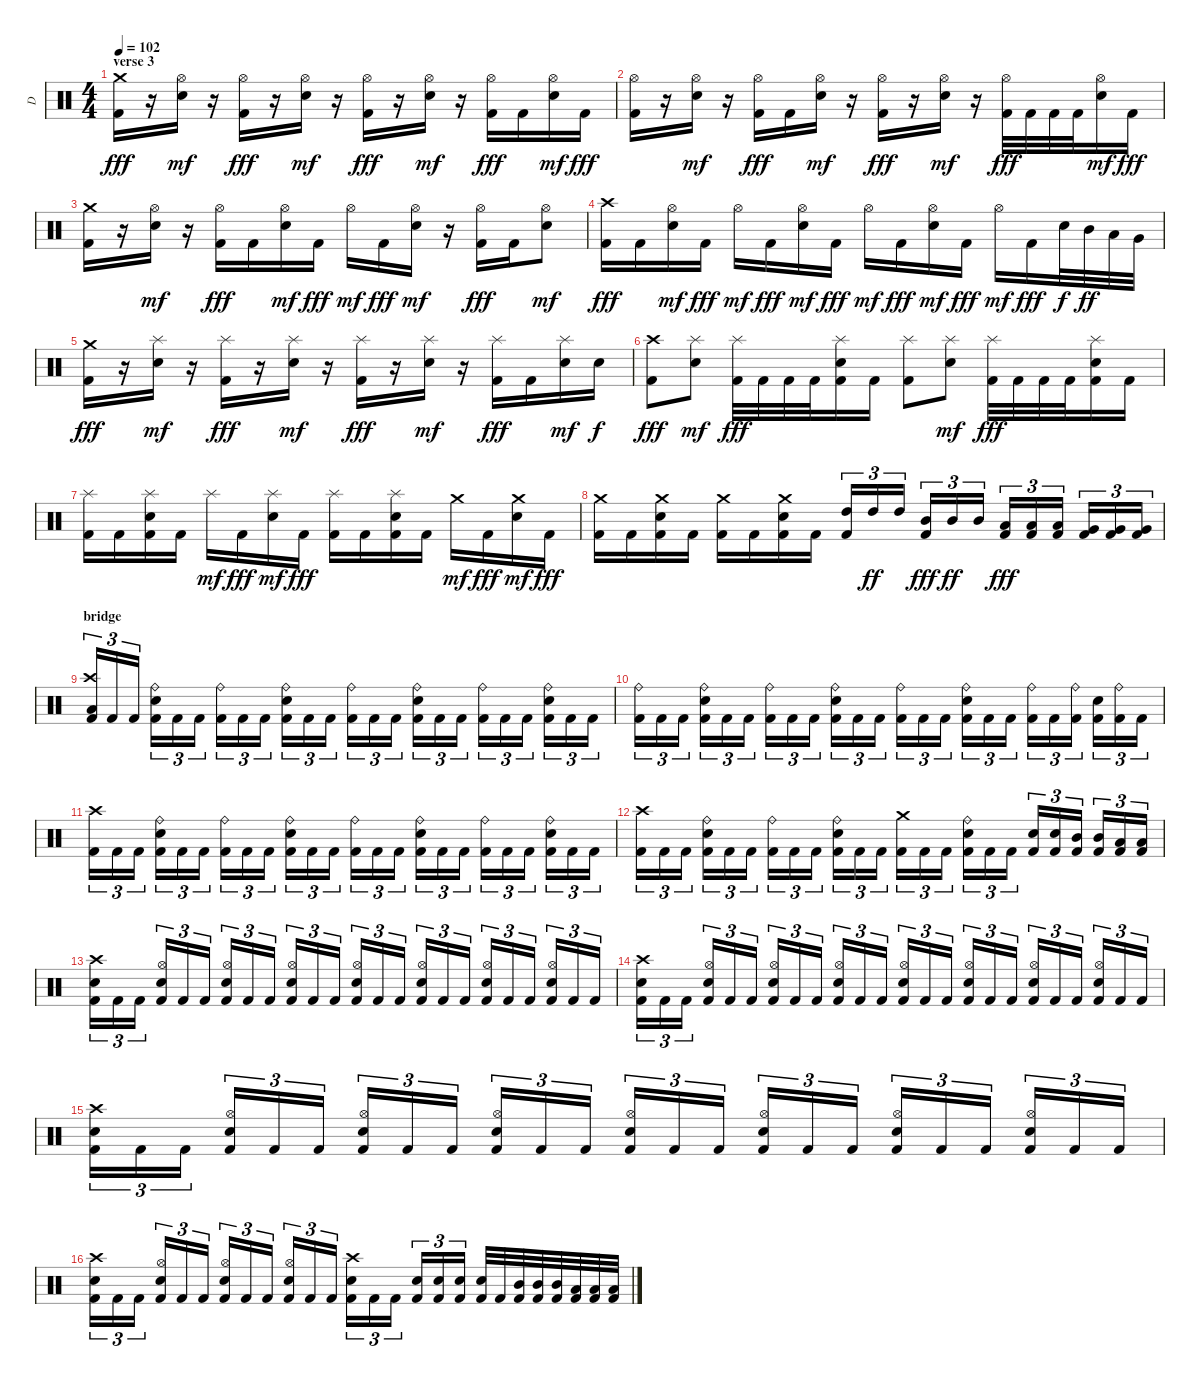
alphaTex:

\track ("D" "D") {instrument percussion}
\staff {score}
\articulation defaults
\ts (4 4)
\section ("" "verse 3")
\tempo 102
\clef neutral
\ks c
("Crash medium (hit)" "Kick (hit) 2").16{dy fff} r.16 ("Hi-Hat (open)" "Snare (hit) 2").16{dy mf} r.16 ("Hi-Hat (open)" "Kick (hit) 2").16{dy fff} r.16 ("Hi-Hat (open)" "Snare (hit) 2").16{dy mf} r.16 ("Hi-Hat (open)" "Kick (hit) 2").16{dy fff} r.16 ("Hi-Hat (open)" "Snare (hit) 2").16{dy mf} r.16 ("Hi-Hat (open)" "Kick (hit) 2").16{dy fff} "Kick (hit) 2".16 ("Hi-Hat (open)" "Snare (hit) 2").16{dy mf} "Kick (hit) 2".16{dy fff} |
("Hi-Hat (open)" "Kick (hit) 2").16 r.16 ("Hi-Hat (open)" "Snare (hit) 2").16{dy mf} r.16 ("Hi-Hat (open)" "Kick (hit) 2").16{dy fff} "Kick (hit) 2".16 ("Hi-Hat (open)" "Snare (hit) 2").16{dy mf} r.16 ("Hi-Hat (open)" "Kick (hit) 2").16{dy fff} r.16 ("Hi-Hat (open)" "Snare (hit) 2").16{dy mf} r.16 ("Hi-Hat (open)" "Kick (hit) 2").32{dy fff} "Kick (hit) 2".32 "Kick (hit) 2".32 "Kick (hit) 2".32 ("Hi-Hat (open)" "Snare (hit) 2").16{dy mf} "Kick (hit) 2".16{dy fff} |
("Crash medium (hit)" "Kick (hit) 2").16 r.16 ("Hi-Hat (open)" "Snare (hit) 2").16{dy mf} r.16 ("Hi-Hat (open)" "Kick (hit) 2").16{dy fff} "Kick (hit) 2".16 ("Hi-Hat (open)" "Snare (hit) 2").16{dy mf} "Kick (hit) 2".16{dy fff} "Hi-Hat (open)".16{dy mf} "Kick (hit) 2".16{dy fff} ("Hi-Hat (open)" "Snare (hit) 2").16{dy mf} r.16 ("Hi-Hat (open)" "Kick (hit) 2").16{dy fff} "Kick (hit) 2".16 ("Hi-Hat (open)" "Snare (hit) 2").8{dy mf} |
("Crash high (hit)" "Kick (hit) 2").16{dy fff} "Kick (hit) 2".16 ("Hi-Hat (open)" "Snare (hit) 2").16{dy mf} "Kick (hit) 2".16{dy fff} "Hi-Hat (open)".16{dy mf} "Kick (hit) 2".16{dy fff} ("Hi-Hat (open)" "Snare (hit) 2").16{dy mf} "Kick (hit) 2".16{dy fff} "Hi-Hat (open)".16{dy mf} "Kick (hit) 2".16{dy fff} ("Hi-Hat (open)" "Snare (hit) 2").16{dy mf} "Kick (hit) 2".16{dy fff} "Hi-Hat (open)".16{dy mf} "Kick (hit) 2".16{dy fff} "Snare (hit) 2".32{dy f} "Mid Tom (hit)".32{dy ff} "Low Tom (hit)".32 "Very Low Tom (hit)".32 |
("Crash medium (hit)" "Kick (hit) 2").16{dy fff} r.16 ("Splash (hit)" "Snare (hit) 2").16{dy mf} r.16 ("Splash (hit)" "Kick (hit) 2").16{dy fff} r.16 ("Splash (hit)" "Snare (hit) 2").16{dy mf} r.16 ("Splash (hit)" "Kick (hit) 2").16{dy fff} r.16 ("Splash (hit)" "Snare (hit) 2").16{dy mf} r.16 ("Splash (hit)" "Kick (hit) 2").16{dy fff} "Kick (hit) 2".16 ("Splash (hit)" "Snare (hit) 2").16{dy mf} "Snare (hit) 2".16{dy f} |
("Crash high (hit)" "Kick (hit) 2").8{dy fff} ("Splash (hit)" "Snare (hit) 2").8{dy mf} ("Splash (hit)" "Kick (hit) 2").32{dy fff} "Kick (hit) 2".32 "Kick (hit) 2".32 "Kick (hit) 2".32 ("Splash (hit)" "Snare (hit) 2" "Kick (hit) 2").16 "Kick (hit) 2".16 ("Splash (hit)" "Kick (hit) 2").8 ("Splash (hit)" "Snare (hit) 2").8{dy mf} ("Splash (hit)" "Kick (hit) 2").32{dy fff} "Kick (hit) 2".32 "Kick (hit) 2".32 "Kick (hit) 2".32 ("Splash (hit)" "Snare (hit) 2" "Kick (hit) 2").16 "Kick (hit) 2".16 |
("Splash (hit)" "Kick (hit) 2").16 "Kick (hit) 2".16 ("Splash (hit)" "Snare (hit) 2" "Kick (hit) 2").16 "Kick (hit) 2".16 "Splash (hit)".16{dy mf} "Kick (hit) 2".16{dy fff} ("Splash (hit)" "Snare (hit) 2").16{dy mf} "Kick (hit) 2".16{dy fff} ("Splash (hit)" "Kick (hit) 2").16 "Kick (hit) 2".16 ("Splash (hit)" "Snare (hit) 2" "Kick (hit) 2").16 "Kick (hit) 2".16 "Crash medium (hit)".16{dy mf} "Kick (hit) 2".16{dy fff} ("Crash medium (hit)" "Snare (hit) 2").16{dy mf} "Kick (hit) 2".16{dy fff} |
("Crash medium (hit)" "Kick (hit) 2").16 "Kick (hit) 2".16 ("Crash medium (hit)" "Snare (hit) 2" "Kick (hit) 2").16 "Kick (hit) 2".16 ("Crash medium (hit)" "Kick (hit) 2").16 "Kick (hit) 2".16 ("Crash medium (hit)" "Snare (hit) 2" "Kick (hit) 2").16 "Kick (hit) 2".16 ("High Tom (hit)" "Kick (hit) 2").16{tu (3 2)} "High Tom (hit)".16{tu (3 2) dy ff} "High Tom (hit)".16{tu (3 2)} ("Mid Tom (hit)" "Kick (hit) 2").16{tu (3 2) dy fff} "Mid Tom (hit)".16{tu (3 2) dy ff} "Mid Tom (hit)".16{tu (3 2)} ("Low Tom (hit)" "Kick (hit) 2").16{tu (3 2) dy fff} ("Low Tom (hit)" "Kick (hit) 2").16{tu (3 2)} ("Low Tom (hit)" "Kick (hit) 2").16{tu (3 2)} ("Very Low Tom (hit)" "Kick (hit) 2").16{tu (3 2)} ("Very Low Tom (hit)" "Kick (hit) 2").16{tu (3 2)} ("Very Low Tom (hit)" "Kick (hit) 2").16{tu (3 2)} |
\section ("" "bridge")
("Crash high (hit)" "Low Floor Tom (hit)" "Kick (hit) 2").16{tu (3 2)} "Kick (hit) 2".16{tu (3 2)} "Kick (hit) 2".16{tu (3 2)} ("Ride (bell)" "Snare (hit) 2" "Kick (hit) 2").16{tu (3 2)} "Kick (hit) 2".16{tu (3 2)} "Kick (hit) 2".16{tu (3 2)} ("Ride (bell)" "Kick (hit) 2").16{tu (3 2)} "Kick (hit) 2".16{tu (3 2)} "Kick (hit) 2".16{tu (3 2)} ("Ride (bell)" "Snare (hit) 2" "Kick (hit) 2").16{tu (3 2)} "Kick (hit) 2".16{tu (3 2)} "Kick (hit) 2".16{tu (3 2)} ("Ride (bell)" "Kick (hit) 2").16{tu (3 2)} "Kick (hit) 2".16{tu (3 2)} "Kick (hit) 2".16{tu (3 2)} ("Ride (bell)" "Snare (hit) 2" "Kick (hit) 2").16{tu (3 2)} "Kick (hit) 2".16{tu (3 2)} "Kick (hit) 2".16{tu (3 2)} ("Ride (bell)" "Kick (hit) 2").16{tu (3 2)} "Kick (hit) 2".16{tu (3 2)} "Kick (hit) 2".16{tu (3 2)} ("Ride (bell)" "Snare (hit) 2" "Kick (hit) 2").16{tu (3 2)} "Kick (hit) 2".16{tu (3 2)} "Kick (hit) 2".16{tu (3 2)} |
("Ride (bell)" "Kick (hit) 2").16{tu (3 2)} "Kick (hit) 2".16{tu (3 2)} "Kick (hit) 2".16{tu (3 2)} ("Ride (bell)" "Snare (hit) 2" "Kick (hit) 2").16{tu (3 2)} "Kick (hit) 2".16{tu (3 2)} "Kick (hit) 2".16{tu (3 2)} ("Ride (bell)" "Kick (hit) 2").16{tu (3 2)} "Kick (hit) 2".16{tu (3 2)} "Kick (hit) 2".16{tu (3 2)} ("Ride (bell)" "Snare (hit) 2" "Kick (hit) 2").16{tu (3 2)} "Kick (hit) 2".16{tu (3 2)} "Kick (hit) 2".16{tu (3 2)} ("Ride (bell)" "Kick (hit) 2").16{tu (3 2)} "Kick (hit) 2".16{tu (3 2)} "Kick (hit) 2".16{tu (3 2)} ("Ride (bell)" "Snare (hit) 2" "Kick (hit) 2").16{tu (3 2)} "Kick (hit) 2".16{tu (3 2)} "Kick (hit) 2".16{tu (3 2)} ("Ride (bell)" "Kick (hit) 2").16{tu (3 2)} "Kick (hit) 2".16{tu (3 2)} ("Ride (bell)" "Kick (hit) 2").16{tu (3 2)} ("Snare (hit) 2" "Kick (hit) 2").16{tu (3 2)} ("Ride (bell)" "Kick (hit) 2").16{tu (3 2)} "Kick (hit) 2".16{tu (3 2)} |
("Crash high (hit)" "Kick (hit) 2").16{tu (3 2)} "Kick (hit) 2".16{tu (3 2)} "Kick (hit) 2".16{tu (3 2)} ("Ride (bell)" "Snare (hit) 2" "Kick (hit) 2").16{tu (3 2)} "Kick (hit) 2".16{tu (3 2)} "Kick (hit) 2".16{tu (3 2)} ("Ride (bell)" "Kick (hit) 2").16{tu (3 2)} "Kick (hit) 2".16{tu (3 2)} "Kick (hit) 2".16{tu (3 2)} ("Ride (bell)" "Snare (hit) 2" "Kick (hit) 2").16{tu (3 2)} "Kick (hit) 2".16{tu (3 2)} "Kick (hit) 2".16{tu (3 2)} ("Ride (bell)" "Kick (hit) 2").16{tu (3 2)} "Kick (hit) 2".16{tu (3 2)} "Kick (hit) 2".16{tu (3 2)} ("Ride (bell)" "Snare (hit) 2" "Kick (hit) 2").16{tu (3 2)} "Kick (hit) 2".16{tu (3 2)} "Kick (hit) 2".16{tu (3 2)} ("Ride (bell)" "Kick (hit) 2").16{tu (3 2)} "Kick (hit) 2".16{tu (3 2)} "Kick (hit) 2".16{tu (3 2)} ("Ride (bell)" "Snare (hit) 2" "Kick (hit) 2").16{tu (3 2)} "Kick (hit) 2".16{tu (3 2)} "Kick (hit) 2".16{tu (3 2)} |
("Crash high (hit)" "Kick (hit) 2").16{tu (3 2)} "Kick (hit) 2".16{tu (3 2)} "Kick (hit) 2".16{tu (3 2)} ("Ride (bell)" "Snare (hit) 2" "Kick (hit) 2").16{tu (3 2)} "Kick (hit) 2".16{tu (3 2)} "Kick (hit) 2".16{tu (3 2)} ("Ride (bell)" "Kick (hit) 2").16{tu (3 2)} "Kick (hit) 2".16{tu (3 2)} "Kick (hit) 2".16{tu (3 2)} ("Ride (bell)" "Snare (hit) 2" "Kick (hit) 2").16{tu (3 2)} "Kick (hit) 2".16{tu (3 2)} "Kick (hit) 2".16{tu (3 2)} ("Crash medium (hit)" "Kick (hit) 2").16{tu (3 2)} "Kick (hit) 2".16{tu (3 2)} "Kick (hit) 2".16{tu (3 2)} ("Ride (bell)" "Snare (hit) 2" "Kick (hit) 2").16{tu (3 2)} "Kick (hit) 2".16{tu (3 2)} "Kick (hit) 2".16{tu (3 2)} ("Snare (hit) 2" "Kick (hit) 2").16{tu (3 2)} ("Snare (hit) 2" "Kick (hit) 2").16{tu (3 2)} ("Mid Tom (hit)" "Kick (hit) 2").16{tu (3 2)} ("Mid Tom (hit)" "Kick (hit) 2").16{tu (3 2)} ("Low Tom (hit)" "Kick (hit) 2").16{tu (3 2)} ("Low Tom (hit)" "Kick (hit) 2").16{tu (3 2)} |
("Crash high (hit)" "Snare (hit) 2" "Kick (hit) 2").16{tu (3 2)} "Kick (hit) 2".16{tu (3 2)} "Kick (hit) 2".16{tu (3 2)} ("Hi-Hat (open)" "Snare (hit) 2" "Kick (hit) 2").16{tu (3 2)} "Kick (hit) 2".16{tu (3 2)} "Kick (hit) 2".16{tu (3 2)} ("Hi-Hat (open)" "Snare (hit) 2" "Kick (hit) 2").16{tu (3 2)} "Kick (hit) 2".16{tu (3 2)} "Kick (hit) 2".16{tu (3 2)} ("Hi-Hat (open)" "Snare (hit) 2" "Kick (hit) 2").16{tu (3 2)} "Kick (hit) 2".16{tu (3 2)} "Kick (hit) 2".16{tu (3 2)} ("Hi-Hat (open)" "Snare (hit) 2" "Kick (hit) 2").16{tu (3 2)} "Kick (hit) 2".16{tu (3 2)} "Kick (hit) 2".16{tu (3 2)} ("Hi-Hat (open)" "Snare (hit) 2" "Kick (hit) 2").16{tu (3 2)} "Kick (hit) 2".16{tu (3 2)} "Kick (hit) 2".16{tu (3 2)} ("Hi-Hat (open)" "Snare (hit) 2" "Kick (hit) 2").16{tu (3 2)} "Kick (hit) 2".16{tu (3 2)} "Kick (hit) 2".16{tu (3 2)} ("Hi-Hat (open)" "Snare (hit) 2" "Kick (hit) 2").16{tu (3 2)} "Kick (hit) 2".16{tu (3 2)} "Kick (hit) 2".16{tu (3 2)} |
("Crash high (hit)" "Snare (hit) 2" "Kick (hit) 2").16{tu (3 2)} "Kick (hit) 2".16{tu (3 2)} "Kick (hit) 2".16{tu (3 2)} ("Hi-Hat (open)" "Snare (hit) 2" "Kick (hit) 2").16{tu (3 2)} "Kick (hit) 2".16{tu (3 2)} "Kick (hit) 2".16{tu (3 2)} ("Hi-Hat (open)" "Snare (hit) 2" "Kick (hit) 2").16{tu (3 2)} "Kick (hit) 2".16{tu (3 2)} "Kick (hit) 2".16{tu (3 2)} ("Hi-Hat (open)" "Snare (hit) 2" "Kick (hit) 2").16{tu (3 2)} "Kick (hit) 2".16{tu (3 2)} "Kick (hit) 2".16{tu (3 2)} ("Hi-Hat (open)" "Snare (hit) 2" "Kick (hit) 2").16{tu (3 2)} "Kick (hit) 2".16{tu (3 2)} "Kick (hit) 2".16{tu (3 2)} ("Hi-Hat (open)" "Snare (hit) 2" "Kick (hit) 2").16{tu (3 2)} "Kick (hit) 2".16{tu (3 2)} "Kick (hit) 2".16{tu (3 2)} ("Hi-Hat (open)" "Snare (hit) 2" "Kick (hit) 2").16{tu (3 2)} "Kick (hit) 2".16{tu (3 2)} "Kick (hit) 2".16{tu (3 2)} ("Hi-Hat (open)" "Snare (hit) 2" "Kick (hit) 2").16{tu (3 2)} "Kick (hit) 2".16{tu (3 2)} "Kick (hit) 2".16{tu (3 2)} |
("Crash high (hit)" "Snare (hit) 2" "Kick (hit) 2").16{tu (3 2)} "Kick (hit) 2".16{tu (3 2)} "Kick (hit) 2".16{tu (3 2)} ("Hi-Hat (open)" "Snare (hit) 2" "Kick (hit) 2").16{tu (3 2)} "Kick (hit) 2".16{tu (3 2)} "Kick (hit) 2".16{tu (3 2)} ("Hi-Hat (open)" "Snare (hit) 2" "Kick (hit) 2").16{tu (3 2)} "Kick (hit) 2".16{tu (3 2)} "Kick (hit) 2".16{tu (3 2)} ("Hi-Hat (open)" "Snare (hit) 2" "Kick (hit) 2").16{tu (3 2)} "Kick (hit) 2".16{tu (3 2)} "Kick (hit) 2".16{tu (3 2)} ("Hi-Hat (open)" "Snare (hit) 2" "Kick (hit) 2").16{tu (3 2)} "Kick (hit) 2".16{tu (3 2)} "Kick (hit) 2".16{tu (3 2)} ("Hi-Hat (open)" "Snare (hit) 2" "Kick (hit) 2").16{tu (3 2)} "Kick (hit) 2".16{tu (3 2)} "Kick (hit) 2".16{tu (3 2)} ("Hi-Hat (open)" "Snare (hit) 2" "Kick (hit) 2").16{tu (3 2)} "Kick (hit) 2".16{tu (3 2)} "Kick (hit) 2".16{tu (3 2)} ("Hi-Hat (open)" "Snare (hit) 2" "Kick (hit) 2").16{tu (3 2)} "Kick (hit) 2".16{tu (3 2)} "Kick (hit) 2".16{tu (3 2)} |
("Crash high (hit)" "Snare (hit) 2" "Kick (hit) 2").16{tu (3 2)} "Kick (hit) 2".16{tu (3 2)} "Kick (hit) 2".16{tu (3 2)} ("Hi-Hat (open)" "Snare (hit) 2" "Kick (hit) 2").16{tu (3 2)} "Kick (hit) 2".16{tu (3 2)} "Kick (hit) 2".16{tu (3 2)} ("Hi-Hat (open)" "Snare (hit) 2" "Kick (hit) 2").16{tu (3 2)} "Kick (hit) 2".16{tu (3 2)} "Kick (hit) 2".16{tu (3 2)} ("Hi-Hat (open)" "Snare (hit) 2" "Kick (hit) 2").16{tu (3 2)} "Kick (hit) 2".16{tu (3 2)} "Kick (hit) 2".16{tu (3 2)} ("Crash high (hit)" "Snare (hit) 2" "Kick (hit) 2").16{tu (3 2)} "Kick (hit) 2".16{tu (3 2)} "Kick (hit) 2".16{tu (3 2)} ("Snare (hit) 2" "Kick (hit) 2").16{tu (3 2)} ("Snare (hit) 2" "Kick (hit) 2").16{tu (3 2)} ("Snare (hit) 2" "Kick (hit) 2").16{tu (3 2)} ("Snare (hit) 2" "Kick (hit) 2").32 "Kick (hit) 2".32 ("Mid Tom (hit)" "Kick (hit) 2").32 ("Mid Tom (hit)" "Kick (hit) 2").32 ("Mid Tom (hit)" "Kick (hit) 2").32 ("Low Tom (hit)" "Kick (hit) 2").32 ("Low Tom (hit)" "Kick (hit) 2").32 ("Low Tom (hit)" "Kick (hit) 2").32
